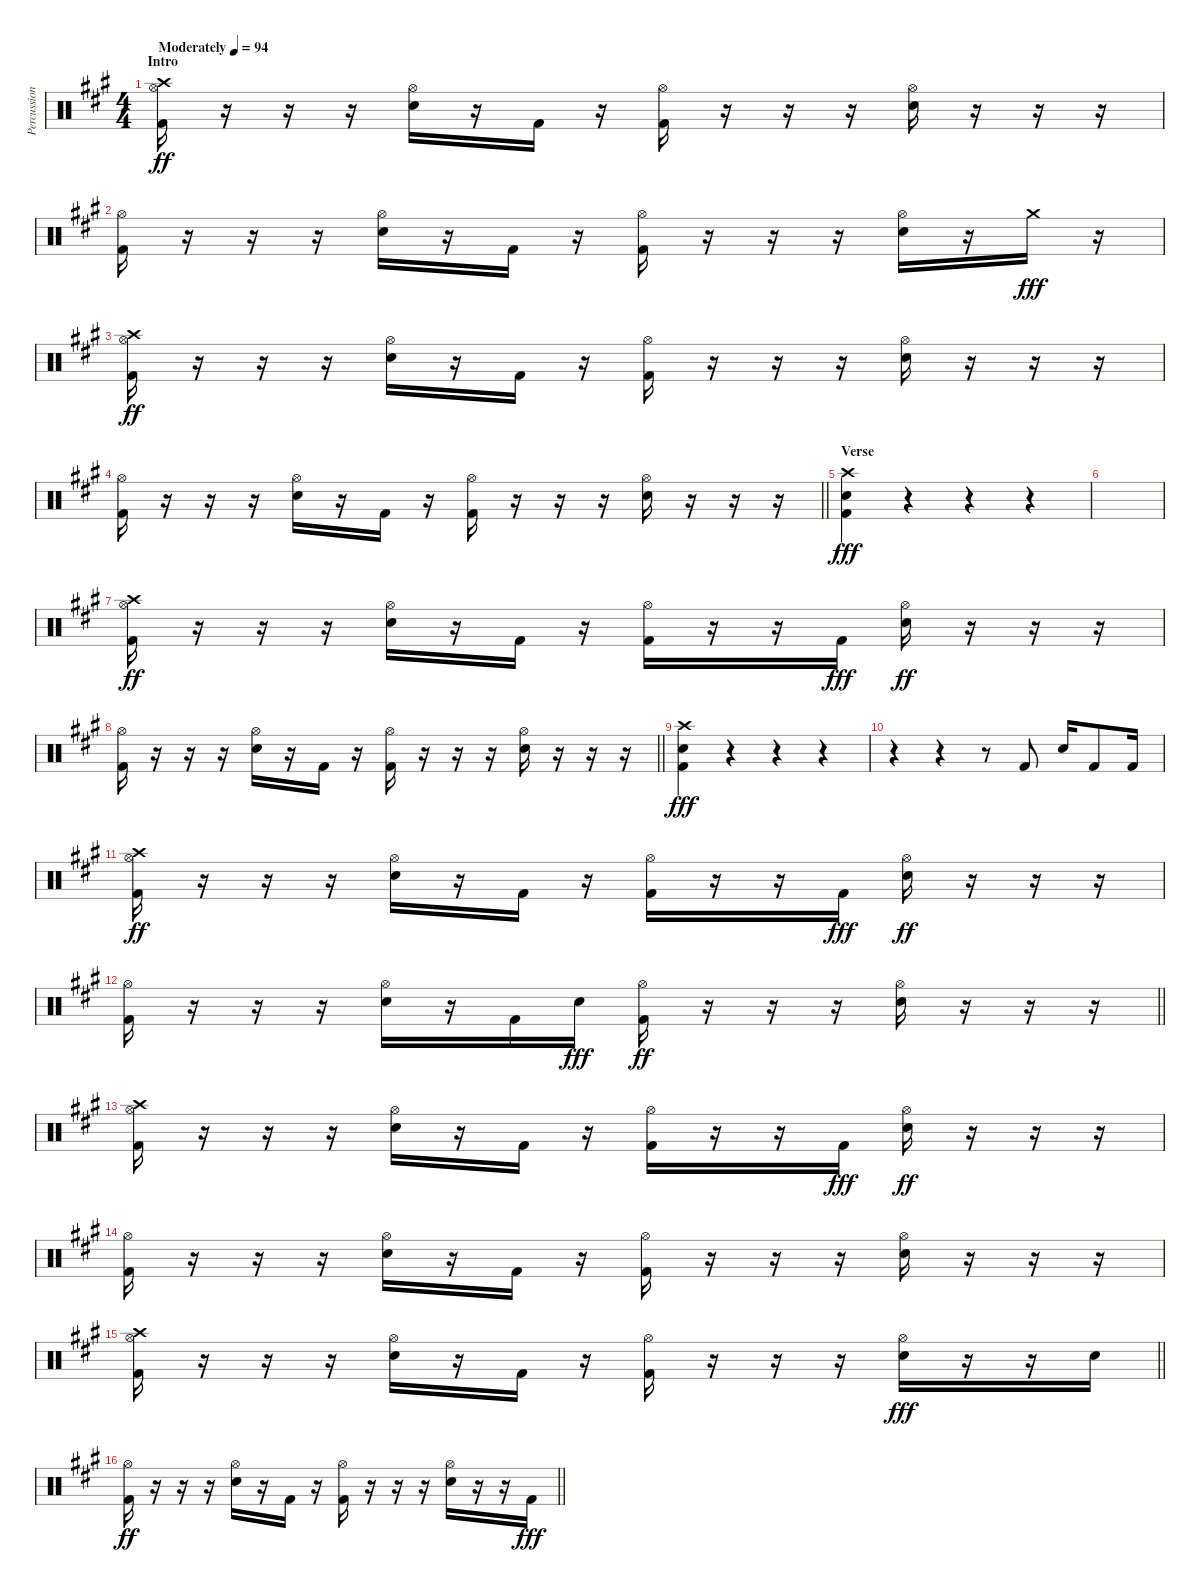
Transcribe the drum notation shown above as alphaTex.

\track ("Percussion" "Percussion") {instrument percussion}
\staff {score}
\articulation defaults
\ts (4 4)
\section ("" "Intro")
\tempo (94 "Moderately")
\clef neutral
\ks a
("Crash high (hit)" "Hi-Hat (open)" "Kick (hit) 2").16{dy ff} r.16 r.16 r.16 ("Hi-Hat (open)" "Snare (hit) 2").16 r.16 "Kick (hit) 2".16 r.16 ("Hi-Hat (open)" "Kick (hit) 2").16 r.16 r.16 r.16 ("Hi-Hat (open)" "Snare (hit) 2").16 r.16 r.16 r.16 |
("Hi-Hat (open)" "Kick (hit) 2").16 r.16 r.16 r.16 ("Hi-Hat (open)" "Snare (hit) 2").16 r.16 "Kick (hit) 2".16 r.16 ("Hi-Hat (open)" "Kick (hit) 2").16 r.16 r.16 r.16 ("Hi-Hat (open)" "Snare (hit) 2").16 r.16 "Crash medium (hit)".16{dy fff} r.16 |
("Crash high (hit)" "Hi-Hat (open)" "Kick (hit) 2").16{dy ff} r.16 r.16 r.16 ("Hi-Hat (open)" "Snare (hit) 2").16 r.16 "Kick (hit) 2".16 r.16 ("Hi-Hat (open)" "Kick (hit) 2").16 r.16 r.16 r.16 ("Hi-Hat (open)" "Snare (hit) 2").16 r.16 r.16 r.16 |
\barLineRight lightlight
("Hi-Hat (open)" "Kick (hit) 2").16 r.16 r.16 r.16 ("Hi-Hat (open)" "Snare (hit) 2").16 r.16 "Kick (hit) 2".16 r.16 ("Hi-Hat (open)" "Kick (hit) 2").16 r.16 r.16 r.16 ("Hi-Hat (open)" "Snare (hit) 2").16 r.16 r.16 r.16 |
\section ("" "Verse")
("Crash high (hit)" "Snare (hit) 2" "Kick (hit) 2").4{dy fff} r.4 r.4 r.4 |
|
("Crash high (hit)" "Hi-Hat (open)" "Kick (hit) 2").16{dy ff} r.16 r.16 r.16 ("Hi-Hat (open)" "Snare (hit) 2").16 r.16 "Kick (hit) 2".16 r.16 ("Hi-Hat (open)" "Kick (hit) 2").16 r.16 r.16 "Kick (hit) 2".16{dy fff} ("Hi-Hat (open)" "Snare (hit) 2").16{dy ff} r.16 r.16 r.16 |
\barLineRight lightlight
("Hi-Hat (open)" "Kick (hit) 2").16 r.16 r.16 r.16 ("Hi-Hat (open)" "Snare (hit) 2").16 r.16 "Kick (hit) 2".16 r.16 ("Hi-Hat (open)" "Kick (hit) 2").16 r.16 r.16 r.16 ("Hi-Hat (open)" "Snare (hit) 2").16 r.16 r.16 r.16 |
("Crash high (hit)" "Snare (hit) 2" "Kick (hit) 2").4{dy fff} r.4 r.4 r.4 |
r.4 r.4 r.8 "Kick (hit) 2".8 "Snare (hit) 2".16 "Kick (hit) 2".8 "Kick (hit) 2".16 |
("Crash high (hit)" "Hi-Hat (open)" "Kick (hit) 2").16{dy ff} r.16 r.16 r.16 ("Hi-Hat (open)" "Snare (hit) 2").16 r.16 "Kick (hit) 2".16 r.16 ("Hi-Hat (open)" "Kick (hit) 2").16 r.16 r.16 "Kick (hit) 2".16{dy fff} ("Hi-Hat (open)" "Snare (hit) 2").16{dy ff} r.16 r.16 r.16 |
\barLineRight lightlight
("Hi-Hat (open)" "Kick (hit) 2").16 r.16 r.16 r.16 ("Hi-Hat (open)" "Snare (hit) 2").16 r.16 "Kick (hit) 2".16 "Snare (hit) 2".16{dy fff} ("Hi-Hat (open)" "Kick (hit) 2").16{dy ff} r.16 r.16 r.16 ("Hi-Hat (open)" "Snare (hit) 2").16 r.16 r.16 r.16 |
("Crash high (hit)" "Hi-Hat (open)" "Kick (hit) 2").16 r.16 r.16 r.16 ("Hi-Hat (open)" "Snare (hit) 2").16 r.16 "Kick (hit) 2".16 r.16 ("Hi-Hat (open)" "Kick (hit) 2").16 r.16 r.16 "Kick (hit) 2".16{dy fff} ("Hi-Hat (open)" "Snare (hit) 2").16{dy ff} r.16 r.16 r.16 |
("Hi-Hat (open)" "Kick (hit) 2").16 r.16 r.16 r.16 ("Hi-Hat (open)" "Snare (hit) 2").16 r.16 "Kick (hit) 2".16 r.16 ("Hi-Hat (open)" "Kick (hit) 2").16 r.16 r.16 r.16 ("Hi-Hat (open)" "Snare (hit) 2").16 r.16 r.16 r.16 |
\barLineRight lightlight
("Crash high (hit)" "Hi-Hat (open)" "Kick (hit) 2").16 r.16 r.16 r.16 ("Hi-Hat (open)" "Snare (hit) 2").16 r.16 "Kick (hit) 2".16 r.16 ("Hi-Hat (open)" "Kick (hit) 2").16 r.16 r.16 r.16 ("Hi-Hat (open)" "Snare (hit) 2").16{dy fff} r.16 r.16 "Snare (hit) 2".16 |
\barLineRight lightlight
("Hi-Hat (open)" "Kick (hit) 2").16{dy ff} r.16 r.16 r.16 ("Hi-Hat (open)" "Snare (hit) 2").16 r.16 "Kick (hit) 2".16 r.16 ("Hi-Hat (open)" "Kick (hit) 2").16 r.16 r.16 r.16 ("Hi-Hat (open)" "Snare (hit) 2").16 r.16 r.16 "Kick (hit) 2".16{dy fff}
